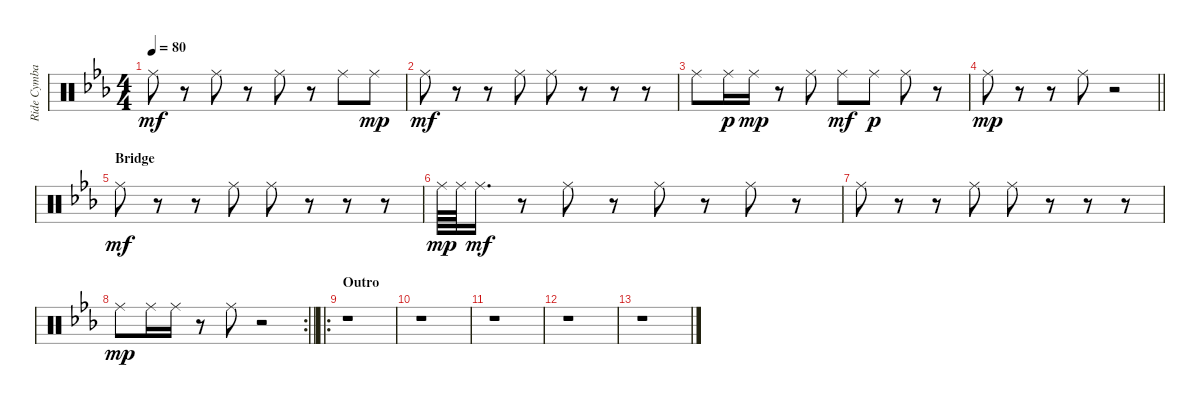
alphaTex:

\track ("Ride Cymbal" "Ride Cymba") {instrument percussion}
\staff {score}
\articulation defaults
\ts (4 4)
\tempo 80
\clef neutral
\ks eb "Ride (middle)".8{dy mf}
r.8 "Ride (middle)".8 r.8 "Ride (middle)".8 r.8 "Ride (middle)".8 "Ride (middle)".8{dy mp} |
"Ride (middle)".8{dy mf} r.8 r.8 "Ride (middle)".8 "Ride (middle)".8 r.8 r.8 r.8 |
"Ride (middle)".8 "Ride (middle)".16{dy p} "Ride (middle)".16{dy mp} r.8 "Ride (middle)".8 "Ride (middle)".8{dy mf} "Ride (middle)".8{dy p} "Ride (middle)".8 r.8 |
\barLineRight lightlight "Ride (middle)".8{dy mp}
r.8 r.8 "Ride (middle)".8 r.2 |
\section ("" "Bridge")
"Ride (middle)".8{dy mf} r.8 r.8 "Ride (middle)".8 "Ride (middle)".8 r.8 r.8 r.8 |
"Ride (middle)".64{dy mp} "Ride (middle)".64 "Ride (middle)".16{d dy mf} r.8 "Ride (middle)".8 r.8 "Ride (middle)".8 r.8 "Ride (middle)".8 r.8 |
"Ride (middle)".8 r.8 r.8 "Ride (middle)".8 "Ride (middle)".8 r.8 r.8 r.8 |
\rc 2
\barLineRight lightlight "Ride (middle)".8{dy mp} "Ride (middle)".16 "Ride (middle)".16
r.8 "Ride (middle)".8 r.2 |
\ro
\section ("" "Outro")
r.1 |
r.1 |
r.1 |
r.1 |
r.1
